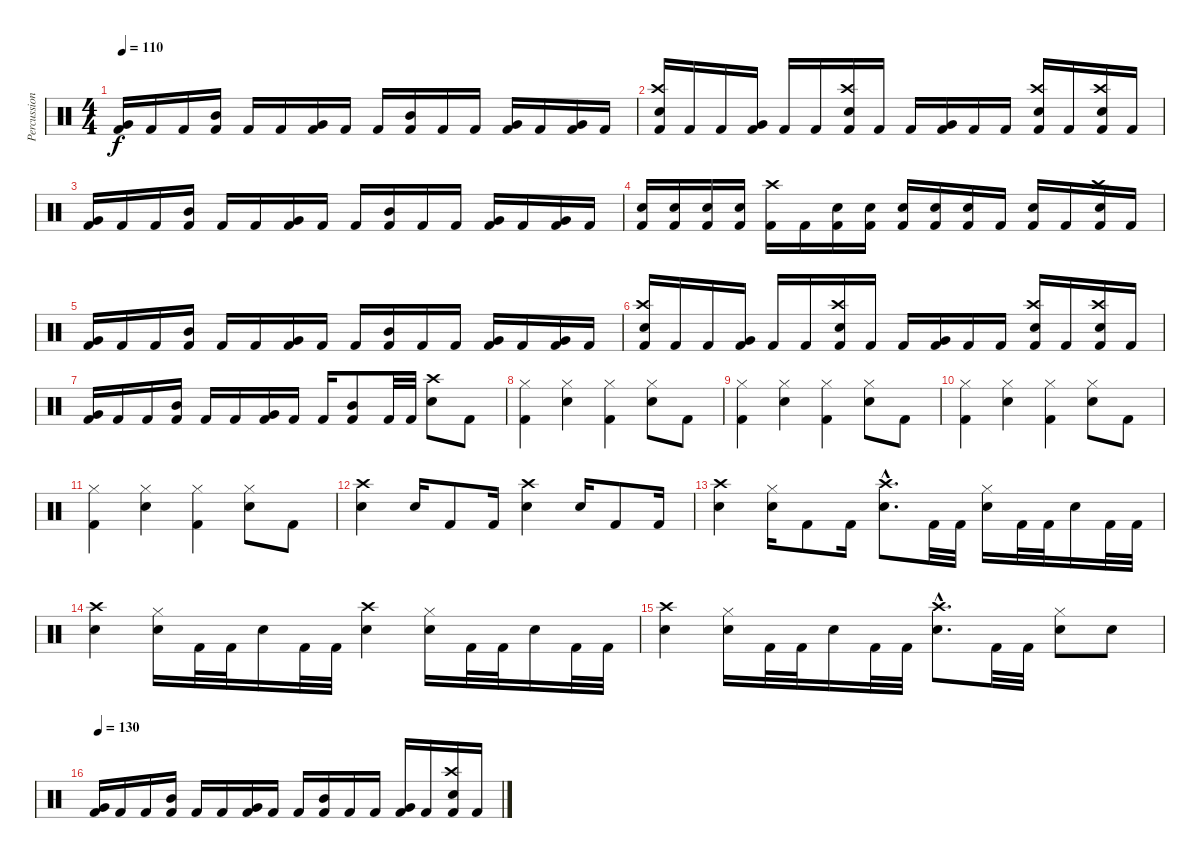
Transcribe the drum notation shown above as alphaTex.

\track ("Percussions" "Percussion") {instrument percussion}
\staff {score}
\articulation defaults
\ts (4 4)
\tempo 110
\clef neutral
\ks c
("Very Low Tom (hit)" "Kick (hit) 2").16{dy f} "Kick (hit) 2".16 "Kick (hit) 2".16 ("Mid Tom (hit)" "Kick (hit) 2").16 "Kick (hit) 2".16 "Kick (hit) 2".16 ("Very Low Tom (hit)" "Kick (hit) 2").16 "Kick (hit) 2".16 "Kick (hit) 2".16 ("Mid Tom (hit)" "Kick (hit) 2").16 "Kick (hit) 2".16 "Kick (hit) 2".16 ("Very Low Tom (hit)" "Kick (hit) 2").16 "Kick (hit) 2".16 ("Very Low Tom (hit)" "Kick (hit) 2").16 "Kick (hit) 2".16 |
("Crash high (hit)" "Electric Snare (hit)" "Kick (hit) 2").16 "Kick (hit) 2".16 "Kick (hit) 2".16 ("Very Low Tom (hit)" "Kick (hit) 2").16 "Kick (hit) 2".16 "Kick (hit) 2".16 ("Crash high (hit)" "Electric Snare (hit)" "Kick (hit) 2").16 "Kick (hit) 2".16 "Kick (hit) 2".16 ("Very Low Tom (hit)" "Kick (hit) 2").16 "Kick (hit) 2".16 "Kick (hit) 2".16 ("Crash high (hit)" "Electric Snare (hit)" "Kick (hit) 2").16 "Kick (hit) 2".16 ("Crash high (hit)" "Electric Snare (hit)" "Kick (hit) 2").16 "Kick (hit) 2".16 |
("Very Low Tom (hit)" "Kick (hit) 2").16 "Kick (hit) 2".16 "Kick (hit) 2".16 ("Mid Tom (hit)" "Kick (hit) 2").16 "Kick (hit) 2".16 "Kick (hit) 2".16 ("Very Low Tom (hit)" "Kick (hit) 2").16 "Kick (hit) 2".16 "Kick (hit) 2".16 ("Mid Tom (hit)" "Kick (hit) 2").16 "Kick (hit) 2".16 "Kick (hit) 2".16 ("Very Low Tom (hit)" "Kick (hit) 2").16 "Kick (hit) 2".16 ("Very Low Tom (hit)" "Kick (hit) 2").16 "Kick (hit) 2".16 |
("Electric Snare (hit)" "Kick (hit) 2").16 ("Electric Snare (hit)" "Kick (hit) 2").16 ("Electric Snare (hit)" "Kick (hit) 2").16 ("Electric Snare (hit)" "Kick (hit) 2").16 ("Crash high (hit)" "Kick (hit) 2").16 "Kick (hit) 2".16 ("Electric Snare (hit)" "Kick (hit) 2").16 ("Electric Snare (hit)" "Kick (hit) 2").16 ("Electric Snare (hit)" "Kick (hit) 2").16 ("Electric Snare (hit)" "Kick (hit) 2").16 ("Electric Snare (hit)" "Kick (hit) 2").16 "Kick (hit) 2".16 ("Electric Snare (hit)" "Kick (hit) 2").16 "Kick (hit) 2".16 ("Crash high (hit)" "Electric Snare (hit)" "Kick (hit) 2").16 "Kick (hit) 2".16 |
("Very Low Tom (hit)" "Kick (hit) 2").16 "Kick (hit) 2".16 "Kick (hit) 2".16 ("Mid Tom (hit)" "Kick (hit) 2").16 "Kick (hit) 2".16 "Kick (hit) 2".16 ("Very Low Tom (hit)" "Kick (hit) 2").16 "Kick (hit) 2".16 "Kick (hit) 2".16 ("Mid Tom (hit)" "Kick (hit) 2").16 "Kick (hit) 2".16 "Kick (hit) 2".16 ("Very Low Tom (hit)" "Kick (hit) 2").16 "Kick (hit) 2".16 ("Very Low Tom (hit)" "Kick (hit) 2").16 "Kick (hit) 2".16 |
("Crash high (hit)" "Electric Snare (hit)" "Kick (hit) 2").16 "Kick (hit) 2".16 "Kick (hit) 2".16 ("Very Low Tom (hit)" "Kick (hit) 2").16 "Kick (hit) 2".16 "Kick (hit) 2".16 ("Crash high (hit)" "Electric Snare (hit)" "Kick (hit) 2").16 "Kick (hit) 2".16 "Kick (hit) 2".16 ("Very Low Tom (hit)" "Kick (hit) 2").16 "Kick (hit) 2".16 "Kick (hit) 2".16 ("Crash high (hit)" "Electric Snare (hit)" "Kick (hit) 2").16 "Kick (hit) 2".16 ("Crash high (hit)" "Electric Snare (hit)" "Kick (hit) 2").16 "Kick (hit) 2".16 |
("Very Low Tom (hit)" "Kick (hit) 2").16 "Kick (hit) 2".16 "Kick (hit) 2".16 ("Mid Tom (hit)" "Kick (hit) 2").16 "Kick (hit) 2".16 "Kick (hit) 2".16 ("Very Low Tom (hit)" "Kick (hit) 2").16 "Kick (hit) 2".16 "Kick (hit) 2".16 ("Mid Tom (hit)" "Kick (hit) 2").8 "Kick (hit) 2".32 "Kick (hit) 2".32 ("Crash high (hit)" "Electric Snare (hit)").8 "Kick (hit) 2".8 |
("Hi-Hat (closed)" "Kick (hit) 2").4 ("Hi-Hat (closed)" "Electric Snare (hit)").4 ("Hi-Hat (closed)" "Kick (hit) 2").4 ("Hi-Hat (closed)" "Electric Snare (hit)").8 "Kick (hit) 2".8 |
("Hi-Hat (closed)" "Kick (hit) 2").4 ("Hi-Hat (closed)" "Electric Snare (hit)").4 ("Hi-Hat (closed)" "Kick (hit) 2").4 ("Hi-Hat (closed)" "Electric Snare (hit)").8 "Kick (hit) 2".8 |
("Hi-Hat (closed)" "Kick (hit) 2").4 ("Hi-Hat (closed)" "Electric Snare (hit)").4 ("Hi-Hat (closed)" "Kick (hit) 2").4 ("Hi-Hat (closed)" "Electric Snare (hit)").8 "Kick (hit) 2".8 |
("Hi-Hat (closed)" "Kick (hit) 2").4 ("Hi-Hat (closed)" "Electric Snare (hit)").4 ("Hi-Hat (closed)" "Kick (hit) 2").4 ("Hi-Hat (closed)" "Electric Snare (hit)").8 "Kick (hit) 2".8 |
("Crash high (hit)" "Electric Snare (hit)").4 "Electric Snare (hit)".16 "Kick (hit) 2".8 "Kick (hit) 2".16 ("Crash high (hit)" "Electric Snare (hit)").4 "Electric Snare (hit)".16 "Kick (hit) 2".8 "Kick (hit) 2".16 |
("Crash high (hit)" "Electric Snare (hit)").4 ("Hi-Hat (closed)" "Electric Snare (hit)").16 "Kick (hit) 2".8 "Kick (hit) 2".16 ("Crash high (hit)"{hac} "Electric Snare (hit)"{hac}).8{d} "Kick (hit) 2".32 "Kick (hit) 2".32 ("Hi-Hat (closed)" "Electric Snare (hit)").16 "Kick (hit) 2".32 "Kick (hit) 2".32 "Electric Snare (hit)".16 "Kick (hit) 2".32 "Kick (hit) 2".32 |
("Crash high (hit)" "Electric Snare (hit)").4 ("Hi-Hat (closed)" "Electric Snare (hit)").16 "Kick (hit) 2".32 "Kick (hit) 2".32 "Electric Snare (hit)".16 "Kick (hit) 2".32 "Kick (hit) 2".32 ("Crash high (hit)" "Electric Snare (hit)").4 ("Hi-Hat (closed)" "Electric Snare (hit)").16 "Kick (hit) 2".32 "Kick (hit) 2".32 "Electric Snare (hit)".16 "Kick (hit) 2".32 "Kick (hit) 2".32 |
("Crash high (hit)" "Electric Snare (hit)").4 ("Hi-Hat (closed)" "Electric Snare (hit)").16 "Kick (hit) 2".32 "Kick (hit) 2".32 "Electric Snare (hit)".16 "Kick (hit) 2".32 "Kick (hit) 2".32 ("Crash high (hit)"{hac} "Electric Snare (hit)"{hac}).8{d} "Kick (hit) 2".32 "Kick (hit) 2".32 ("Hi-Hat (closed)" "Electric Snare (hit)").8 "Electric Snare (hit)".8 |
\tempo 130
("Very Low Tom (hit)" "Kick (hit) 2").16 "Kick (hit) 2".16 "Kick (hit) 2".16 ("Mid Tom (hit)" "Kick (hit) 2").16 "Kick (hit) 2".16 "Kick (hit) 2".16 ("Very Low Tom (hit)" "Kick (hit) 2").16 "Kick (hit) 2".16 "Kick (hit) 2".16 ("Mid Tom (hit)" "Kick (hit) 2").16 "Kick (hit) 2".16 "Kick (hit) 2".16 ("Very Low Tom (hit)" "Kick (hit) 2").16 "Kick (hit) 2".16 ("Crash high (hit)" "Electric Snare (hit)" "Kick (hit) 2").16 "Kick (hit) 2".16
